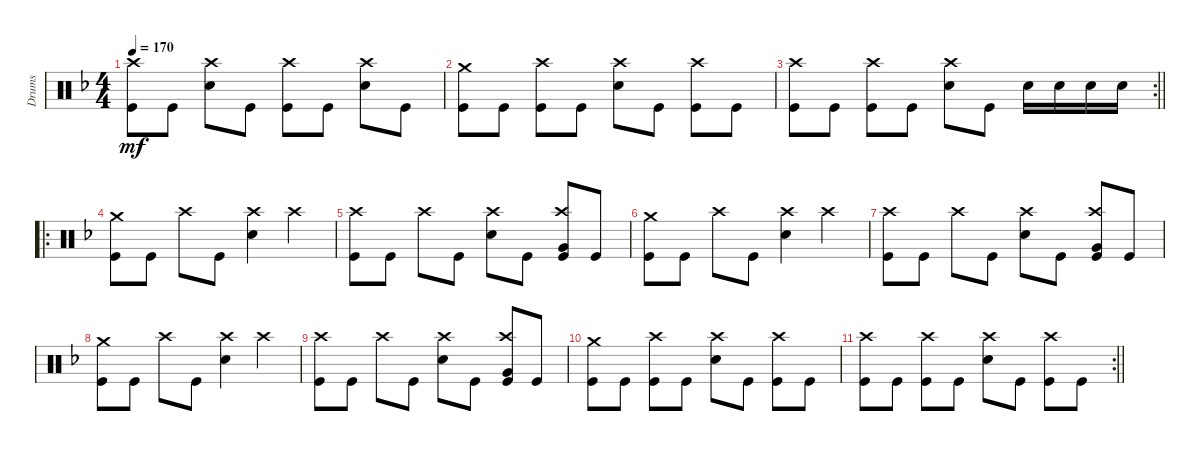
\track ("Drums" "Drums") {instrument percussion}
\staff {score}
\articulation defaults
\ts (4 4)
\tempo 170
\clef neutral
\ks f
("Kick (hit)" "Crash high (hit)").8{dy mf} "Kick (hit)".8 ("Snare (hit) 2" "Crash high (hit)").8 "Kick (hit)".8 ("Kick (hit)" "Crash high (hit)").8 "Kick (hit)".8 ("Snare (hit) 2" "Crash high (hit)").8 "Kick (hit)".8 |
("Kick (hit)" "Crash medium (hit)").8 "Kick (hit)".8 ("Kick (hit)" "Crash high (hit)").8 "Kick (hit)".8 ("Snare (hit) 2" "Crash high (hit)").8 "Kick (hit)".8 ("Kick (hit)" "Crash high (hit)").8 "Kick (hit)".8 |
\rc 2
\barLineRight lightlight
("Kick (hit)" "Crash high (hit)").8 "Kick (hit)".8 ("Kick (hit)" "Crash high (hit)").8 "Kick (hit)".8 ("Snare (hit) 2" "Crash high (hit)").8 "Kick (hit)".8 "Snare (hit) 2".16 "Snare (hit) 2".16 "Snare (hit) 2".16 "Snare (hit) 2".16 |
\ro
("Kick (hit)" "Crash medium (hit)").8 "Kick (hit)".8 "Crash high (hit)".8 "Kick (hit)".8 ("Snare (hit) 2" "Crash high (hit)").4 "Crash high (hit)".4 |
("Kick (hit)" "Crash high (hit)").8 "Kick (hit)".8 "Crash high (hit)".8 "Kick (hit)".8 ("Snare (hit) 2" "Crash high (hit)").8 "Kick (hit)".8 ("Very Low Tom (hit)" "Kick (hit)" "Crash high (hit)").8 "Kick (hit)".8 |
("Kick (hit)" "Crash medium (hit)").8 "Kick (hit)".8 "Crash high (hit)".8 "Kick (hit)".8 ("Snare (hit) 2" "Crash high (hit)").4 "Crash high (hit)".4 |
("Kick (hit)" "Crash high (hit)").8 "Kick (hit)".8 "Crash high (hit)".8 "Kick (hit)".8 ("Snare (hit) 2" "Crash high (hit)").8 "Kick (hit)".8 ("Very Low Tom (hit)" "Kick (hit)" "Crash high (hit)").8 "Kick (hit)".8 |
("Kick (hit)" "Crash medium (hit)").8 "Kick (hit)".8 "Crash high (hit)".8 "Kick (hit)".8 ("Snare (hit) 2" "Crash high (hit)").4 "Crash high (hit)".4 |
("Kick (hit)" "Crash high (hit)").8 "Kick (hit)".8 "Crash high (hit)".8 "Kick (hit)".8 ("Snare (hit) 2" "Crash high (hit)").8 "Kick (hit)".8 ("Very Low Tom (hit)" "Kick (hit)" "Crash high (hit)").8 "Kick (hit)".8 |
("Kick (hit)" "Crash medium (hit)").8 "Kick (hit)".8 ("Kick (hit)" "Crash high (hit)").8 "Kick (hit)".8 ("Snare (hit) 2" "Crash high (hit)").8 "Kick (hit)".8 ("Kick (hit)" "Crash high (hit)").8 "Kick (hit)".8 |
\rc 2
\barLineRight lightlight
("Kick (hit)" "Crash high (hit)").8 "Kick (hit)".8 ("Kick (hit)" "Crash high (hit)").8 "Kick (hit)".8 ("Snare (hit) 2" "Crash high (hit)").8 "Kick (hit)".8 ("Kick (hit)" "Crash high (hit)").8 "Kick (hit)".8
